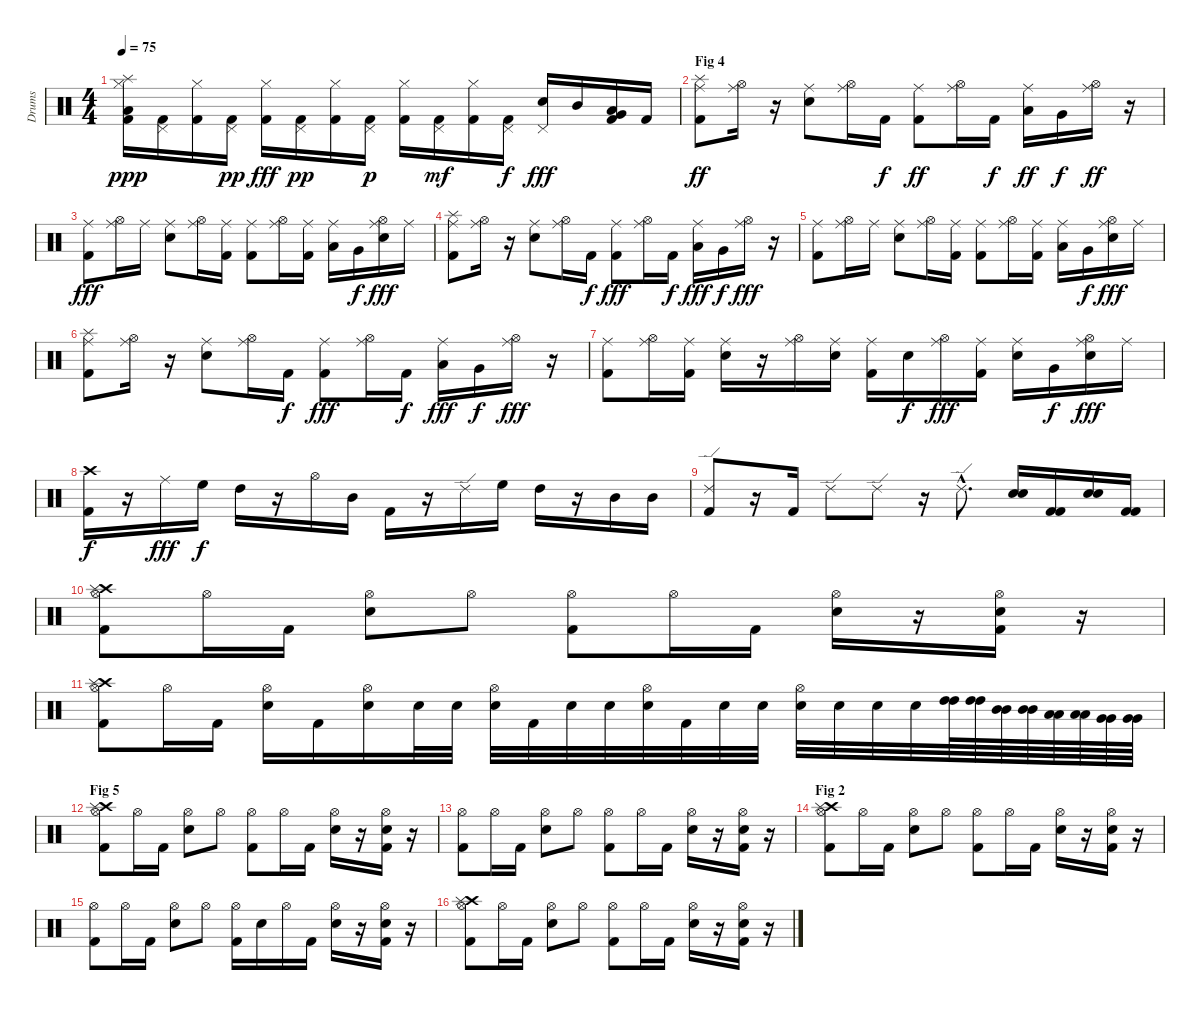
\track ("Drums" "Drums") {instrument percussion}
\staff {score}
\articulation defaults
\ts (4 4)
\tempo 75
\clef neutral
\ks c
("Kick (hit) 2" "Hi-Hat (closed)" "Low Floor Tom (hit)" "Splash (hit)").16{dy ppp} ("Kick (hit) 2" "Pedal Hi-Hat (hit)").16 ("Kick (hit) 2" "Hi-Hat (closed)").16 ("Kick (hit) 2" "Pedal Hi-Hat (hit)").16{dy pp} ("Kick (hit) 2" "Hi-Hat (closed)").16{dy fff} ("Kick (hit) 2" "Pedal Hi-Hat (hit)").16{dy pp} ("Kick (hit) 2" "Hi-Hat (closed)").16 ("Kick (hit) 2" "Pedal Hi-Hat (hit)").16{dy p} ("Kick (hit) 2" "Hi-Hat (closed)").16 ("Kick (hit) 2" "Pedal Hi-Hat (hit)").16{dy mf} ("Kick (hit) 2" "Hi-Hat (closed)").16 ("Kick (hit) 2" "Pedal Hi-Hat (hit)").16{dy f} ("Pedal Hi-Hat (hit)" "Snare (hit) 2").16{dy fff} "Mid Tom (hit)".16 ("Kick (hit) 2" "Low Floor Tom (hit)" "Very Low Tom (hit)").16 "Kick (hit) 2".16 |
\section ("" "Fig 4")
("Splash (hit)" "Kick (hit) 2" "Ride (middle)").8{dy ff} ("Hi-Hat (open)" "Ride (middle)").16 r.16 ("Snare (hit) 2" "Ride (middle)").8 ("Hi-Hat (open)" "Ride (middle)").16 "Kick (hit) 2".16{dy f} ("Kick (hit) 2" "Ride (middle)").8{dy ff} ("Hi-Hat (open)" "Ride (middle)").16 "Kick (hit) 2".16{dy f} ("Low Tom (hit)" "Ride (middle)").16{dy ff} "Very Low Tom (hit)".16{dy f} ("Hi-Hat (open)" "Ride (middle)").16{dy ff} r.16 |
("Kick (hit) 2" "Ride (middle)").8{dy fff} ("Hi-Hat (open)" "Ride (middle)").16 "Ride (middle)".16 ("Snare (hit) 2" "Ride (middle)").8 ("Hi-Hat (open)" "Ride (middle)").16 ("Kick (hit) 2" "Ride (middle)").16 ("Kick (hit) 2" "Ride (middle)").8 ("Hi-Hat (open)" "Ride (middle)").16 ("Kick (hit) 2" "Ride (middle)").16 ("Low Tom (hit)" "Ride (middle)").16 "Very Low Tom (hit)".16{dy f} ("Hi-Hat (open)" "Snare (hit) 2" "Ride (middle)").16{dy fff} "Ride (middle)".16 |
("Splash (hit)" "Kick (hit) 2" "Ride (middle)").8 ("Hi-Hat (open)" "Ride (middle)").16 r.16 ("Snare (hit) 2" "Ride (middle)").8 ("Hi-Hat (open)" "Ride (middle)").16 "Kick (hit) 2".16{dy f} ("Kick (hit) 2" "Ride (middle)").8{dy fff} ("Hi-Hat (open)" "Ride (middle)").16 "Kick (hit) 2".16{dy f} ("Low Tom (hit)" "Ride (middle)").16{dy fff} "Very Low Tom (hit)".16{dy f} ("Hi-Hat (open)" "Ride (middle)").16{dy fff} r.16 |
("Kick (hit) 2" "Ride (middle)").8 ("Hi-Hat (open)" "Ride (middle)").16 "Ride (middle)".16 ("Snare (hit) 2" "Ride (middle)").8 ("Hi-Hat (open)" "Ride (middle)").16 ("Kick (hit) 2" "Ride (middle)").16 ("Kick (hit) 2" "Ride (middle)").8 ("Hi-Hat (open)" "Ride (middle)").16 ("Kick (hit) 2" "Ride (middle)").16 ("Low Tom (hit)" "Ride (middle)").16 "Very Low Tom (hit)".16{dy f} ("Hi-Hat (open)" "Snare (hit) 2" "Ride (middle)").16{dy fff} "Ride (middle)".16 |
("Splash (hit)" "Kick (hit) 2" "Ride (middle)").8 ("Hi-Hat (open)" "Ride (middle)").16 r.16 ("Snare (hit) 2" "Ride (middle)").8 ("Hi-Hat (open)" "Ride (middle)").16 "Kick (hit) 2".16{dy f} ("Kick (hit) 2" "Ride (middle)").8{dy fff} ("Hi-Hat (open)" "Ride (middle)").16 "Kick (hit) 2".16{dy f} ("Low Tom (hit)" "Ride (middle)").16{dy fff} "Very Low Tom (hit)".16{dy f} ("Hi-Hat (open)" "Ride (middle)").16{dy fff} r.16 |
("Kick (hit) 2" "Ride (middle)").8 ("Hi-Hat (open)" "Ride (middle)").16 ("Kick (hit) 2" "Ride (middle)").16 ("Snare (hit) 2" "Ride (middle)").16 r.16 ("Hi-Hat (open)" "Ride (middle)").16 ("Snare (hit) 2" "Ride (middle)").16 ("Kick (hit) 2" "Ride (middle)").16 "Snare (hit) 2".16{dy f} ("Hi-Hat (open)" "Ride (middle)").16{dy fff} ("Kick (hit) 2" "Ride (middle)").16 ("Snare (hit) 2" "Ride (middle)").16 "Very Low Tom (hit)".16{dy f} ("Hi-Hat (open)" "Snare (hit) 2" "Ride (middle)").16{dy fff} "Ride (middle)".16 |
("Kick (hit) 2" "Crash high (hit)").16{dy f} r.16 "Ride (middle)".16{dy fff} "High Floor Tom (hit)".16{dy f} "High Tom (hit)".16 r.16 "Hi-Hat (open)".16 "Mid Tom (hit)".16 "Kick (hit) 2".16 r.16 "Ride (edge) 2".16 "High Floor Tom (hit)".16 "High Tom (hit)".16 r.16 "Mid Tom (hit)".16 "Mid Tom (hit)".16 |
("Kick (hit) 2" "Ride (edge) 2").8 r.16 "Kick (hit) 2".16 "Ride (edge) 2".8 "Ride (edge) 2".8 r.16 "Ride (edge) 2"{hac}.8{d} ("Snare (hit) 2" "Snare (hit) 2").16 ("Kick (hit) 2" "Kick (hit) 2").16 ("Snare (hit) 2" "Snare (hit) 2").16 ("Kick (hit) 2" "Kick (hit) 2").16 |
("Hi-Hat (open)" "Kick (hit) 2" "Crash high (hit)" "Splash (hit)").8 "Hi-Hat (open)".16 "Kick (hit) 2".16 ("Hi-Hat (open)" "Snare (hit) 2").8 "Hi-Hat (open)".8 ("Hi-Hat (open)" "Kick (hit) 2").8 "Hi-Hat (open)".16 "Kick (hit) 2".16 ("Hi-Hat (open)" "Snare (hit) 2").16 r.16 ("Hi-Hat (open)" "Kick (hit) 2" "Snare (hit) 2").16 r.16 |
("Hi-Hat (open)" "Kick (hit) 2" "Crash high (hit)" "Splash (hit)").8 "Hi-Hat (open)".16 "Kick (hit) 2".16 ("Hi-Hat (open)" "Snare (hit) 2").16 "Kick (hit) 2".16 ("Hi-Hat (open)" "Snare (hit) 2").16 "Snare (hit) 2".32 "Snare (hit) 2".32 ("Hi-Hat (open)" "Snare (hit) 2").32 "Kick (hit) 2".32 "Snare (hit) 2".32 "Snare (hit) 2".32 ("Hi-Hat (open)" "Snare (hit) 2").32 "Kick (hit) 2".32 "Snare (hit) 2".32 "Snare (hit) 2".32 ("Hi-Hat (open)" "Snare (hit) 2").32 "Snare (hit) 2".32 "Snare (hit) 2".32 "Snare (hit) 2".32 ("High Tom (hit)" "High Tom (hit)").64 ("High Tom (hit)" "High Tom (hit)").64 ("Mid Tom (hit)" "Mid Tom (hit)").64 ("Mid Tom (hit)" "Mid Tom (hit)").64 ("Low Tom (hit)" "Low Tom (hit)").64 ("Low Tom (hit)" "Low Tom (hit)").64 ("Very Low Tom (hit)" "Very Low Tom (hit)").64 ("Very Low Tom (hit)" "Very Low Tom (hit)").64 |
\section ("" "Fig 5")
("Hi-Hat (open)" "Kick (hit) 2" "Crash high (hit)" "Splash (hit)").8 "Hi-Hat (open)".16 "Kick (hit) 2".16 ("Hi-Hat (open)" "Snare (hit) 2").8 "Hi-Hat (open)".8 ("Hi-Hat (open)" "Kick (hit) 2").8 "Hi-Hat (open)".16 "Kick (hit) 2".16 ("Hi-Hat (open)" "Snare (hit) 2").16 r.16 ("Hi-Hat (open)" "Kick (hit) 2" "Snare (hit) 2").16 r.16 |
("Hi-Hat (open)" "Kick (hit) 2").8 "Hi-Hat (open)".16 "Kick (hit) 2".16 ("Hi-Hat (open)" "Snare (hit) 2").8 "Hi-Hat (open)".8 ("Hi-Hat (open)" "Kick (hit) 2").8 "Hi-Hat (open)".16 "Kick (hit) 2".16 ("Hi-Hat (open)" "Snare (hit) 2").16 r.16 ("Hi-Hat (open)" "Kick (hit) 2" "Snare (hit) 2").16 r.16 |
\section ("" "Fig 2")
("Hi-Hat (open)" "Kick (hit) 2" "Crash high (hit)" "Splash (hit)").8 "Hi-Hat (open)".16 "Kick (hit) 2".16 ("Hi-Hat (open)" "Snare (hit) 2").8 "Hi-Hat (open)".8 ("Hi-Hat (open)" "Kick (hit) 2").8 "Hi-Hat (open)".16 "Kick (hit) 2".16 ("Hi-Hat (open)" "Snare (hit) 2").16 r.16 ("Hi-Hat (open)" "Kick (hit) 2" "Snare (hit) 2").16 r.16 |
("Hi-Hat (open)" "Kick (hit) 2").8 "Hi-Hat (open)".16 "Kick (hit) 2".16 ("Hi-Hat (open)" "Snare (hit) 2").8 "Hi-Hat (open)".8 ("Hi-Hat (open)" "Kick (hit) 2").16 "Snare (hit) 2".16 "Hi-Hat (open)".16 "Kick (hit) 2".16 ("Hi-Hat (open)" "Snare (hit) 2").16 r.16 ("Hi-Hat (open)" "Kick (hit) 2" "Snare (hit) 2").16 r.16 |
("Hi-Hat (open)" "Kick (hit) 2" "Crash high (hit)" "Splash (hit)").8 "Hi-Hat (open)".16 "Kick (hit) 2".16 ("Hi-Hat (open)" "Snare (hit) 2").8 "Hi-Hat (open)".8 ("Hi-Hat (open)" "Kick (hit) 2").8 "Hi-Hat (open)".16 "Kick (hit) 2".16 ("Hi-Hat (open)" "Snare (hit) 2").16 r.16 ("Hi-Hat (open)" "Kick (hit) 2" "Snare (hit) 2").16 r.16
